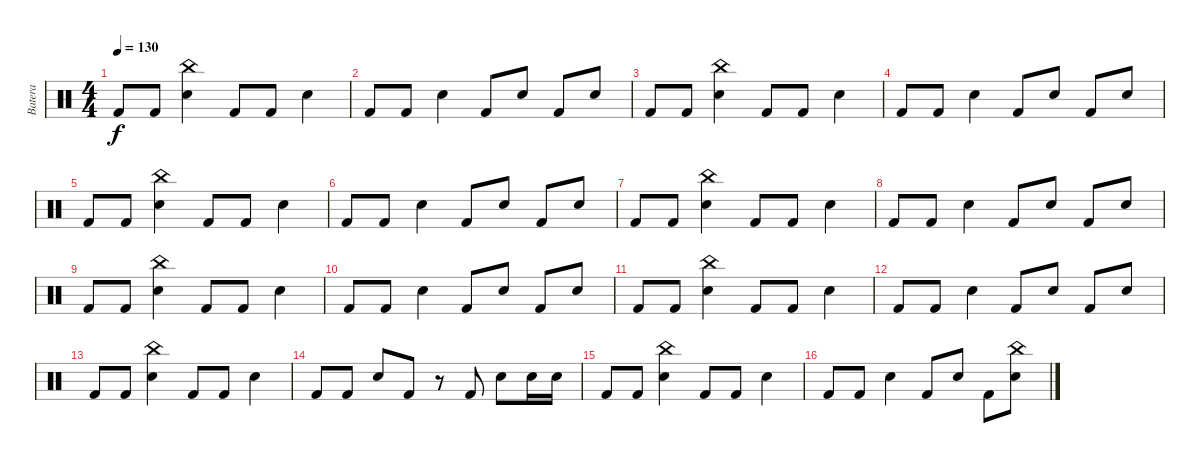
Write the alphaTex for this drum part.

\track ("Batera" "Batera") {instrument percussion}
\staff {score}
\articulation defaults
\ts (4 4)
\tempo 130
\clef neutral
\ks c "Kick (hit) 2".8{dy f} "Kick (hit) 2".8
("Snare (hit) 2" "China (hit)").4 "Kick (hit) 2".8 "Kick (hit) 2".8 "Snare (hit) 2".4 |
"Kick (hit) 2".8 "Kick (hit) 2".8 "Snare (hit) 2".4 "Kick (hit) 2".8 "Snare (hit) 2".8 "Kick (hit) 2".8 "Snare (hit) 2".8 |
"Kick (hit) 2".8 "Kick (hit) 2".8 ("Snare (hit) 2" "China (hit)").4 "Kick (hit) 2".8 "Kick (hit) 2".8 "Snare (hit) 2".4 |
"Kick (hit) 2".8 "Kick (hit) 2".8 "Snare (hit) 2".4 "Kick (hit) 2".8 "Snare (hit) 2".8 "Kick (hit) 2".8 "Snare (hit) 2".8 |
"Kick (hit) 2".8 "Kick (hit) 2".8 ("Snare (hit) 2" "China (hit)").4 "Kick (hit) 2".8 "Kick (hit) 2".8 "Snare (hit) 2".4 |
"Kick (hit) 2".8 "Kick (hit) 2".8 "Snare (hit) 2".4 "Kick (hit) 2".8 "Snare (hit) 2".8 "Kick (hit) 2".8 "Snare (hit) 2".8 |
"Kick (hit) 2".8 "Kick (hit) 2".8 ("Snare (hit) 2" "China (hit)").4 "Kick (hit) 2".8 "Kick (hit) 2".8 "Snare (hit) 2".4 |
"Kick (hit) 2".8 "Kick (hit) 2".8 "Snare (hit) 2".4 "Kick (hit) 2".8 "Snare (hit) 2".8 "Kick (hit) 2".8 "Snare (hit) 2".8 |
"Kick (hit) 2".8 "Kick (hit) 2".8 ("Snare (hit) 2" "China (hit)").4 "Kick (hit) 2".8 "Kick (hit) 2".8 "Snare (hit) 2".4 |
"Kick (hit) 2".8 "Kick (hit) 2".8 "Snare (hit) 2".4 "Kick (hit) 2".8 "Snare (hit) 2".8 "Kick (hit) 2".8 "Snare (hit) 2".8 |
"Kick (hit) 2".8 "Kick (hit) 2".8 ("Snare (hit) 2" "China (hit)").4 "Kick (hit) 2".8 "Kick (hit) 2".8 "Snare (hit) 2".4 |
"Kick (hit) 2".8 "Kick (hit) 2".8 "Snare (hit) 2".4 "Kick (hit) 2".8 "Snare (hit) 2".8 "Kick (hit) 2".8 "Snare (hit) 2".8 |
"Kick (hit) 2".8 "Kick (hit) 2".8 ("Snare (hit) 2" "China (hit)").4 "Kick (hit) 2".8 "Kick (hit) 2".8 "Snare (hit) 2".4 |
"Kick (hit) 2".8 "Kick (hit) 2".8 "Snare (hit) 2".8 "Kick (hit) 2".8 r.8 "Kick (hit) 2".8 "Snare (hit) 2".8 "Snare (hit) 2".16 "Snare (hit) 2".16 |
"Kick (hit) 2".8 "Kick (hit) 2".8 ("Snare (hit) 2" "China (hit)").4 "Kick (hit) 2".8 "Kick (hit) 2".8 "Snare (hit) 2".4 |
"Kick (hit) 2".8 "Kick (hit) 2".8 "Snare (hit) 2".4 "Kick (hit) 2".8 "Snare (hit) 2".8 "Kick (hit) 2".8 ("Snare (hit) 2" "China (hit)").8
